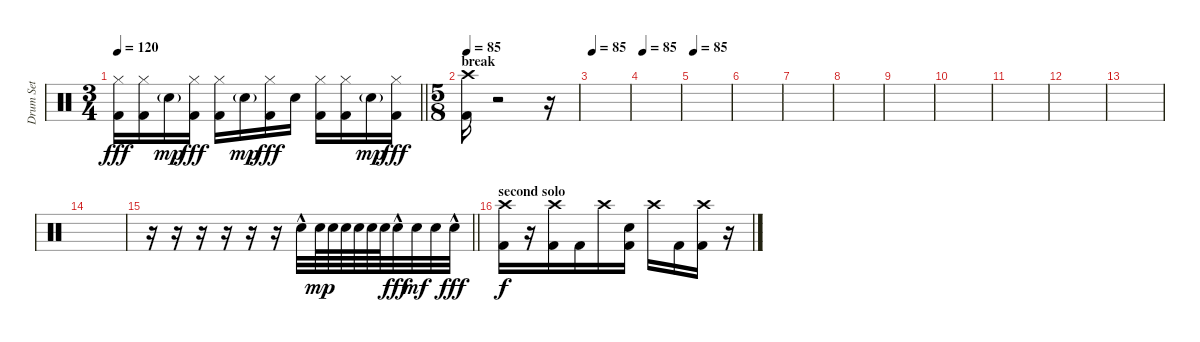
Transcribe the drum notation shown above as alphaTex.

\track ("Drum Set" "Drum Set") {instrument percussion}
\staff {score}
\articulation defaults
\ts (3 4)
\tempo 120
\clef neutral
\barLineRight lightlight
\ks c
("Hi-Hat (closed)" "Kick (hit) 2").16{dy fff} ("Hi-Hat (closed)" "Kick (hit) 2").16 "Electric Snare (hit)"{g}.16{dy mp} ("Hi-Hat (closed)" "Kick (hit) 2").16{dy fff} ("Hi-Hat (closed)" "Kick (hit) 2").16 "Electric Snare (hit)"{g}.16{dy mp} ("Hi-Hat (closed)" "Kick (hit) 2").16{dy fff} "Electric Snare (hit)".16 ("Hi-Hat (closed)" "Kick (hit) 2").16 ("Hi-Hat (closed)" "Kick (hit) 2").16 "Electric Snare (hit)"{g}.16{dy mp} ("Hi-Hat (closed)" "Kick (hit) 2").16{dy fff} |
\ts (5 8)
\section ("" "break")
\tempo 85
("Crash high (hit)" "Kick (hit) 2").16 r.2 r.16 |
\tempo 85
|
\tempo 85
|
\tempo 85
|
|
|
|
|
|
|
|
|
|
\barLineRight lightlight
r.16 r.16 r.16 r.16 r.16 r.16 "Electric Snare (hit)"{hac}.32 "Electric Snare (hit)".64{dy mp} "Electric Snare (hit)".64 "Electric Snare (hit)".64 "Electric Snare (hit)".64 "Electric Snare (hit)".64 "Electric Snare (hit)".64 "Electric Snare (hit)"{hac}.32{dy fff} "Electric Snare (hit)".32{dy mf} "Electric Snare (hit)".32 "Electric Snare (hit)"{hac}.32{dy fff} |
\section ("" "second solo")
("Crash high (hit)" "Kick (hit) 2").16{dy f} r.16 ("Crash high (hit)" "Kick (hit) 2").16 "Kick (hit) 2".16 "Crash high (hit)".16 ("Electric Snare (hit)" "Kick (hit) 2").16 "Crash high (hit)".16 "Kick (hit) 2".16 ("Crash high (hit)" "Kick (hit) 2").16 r.16
